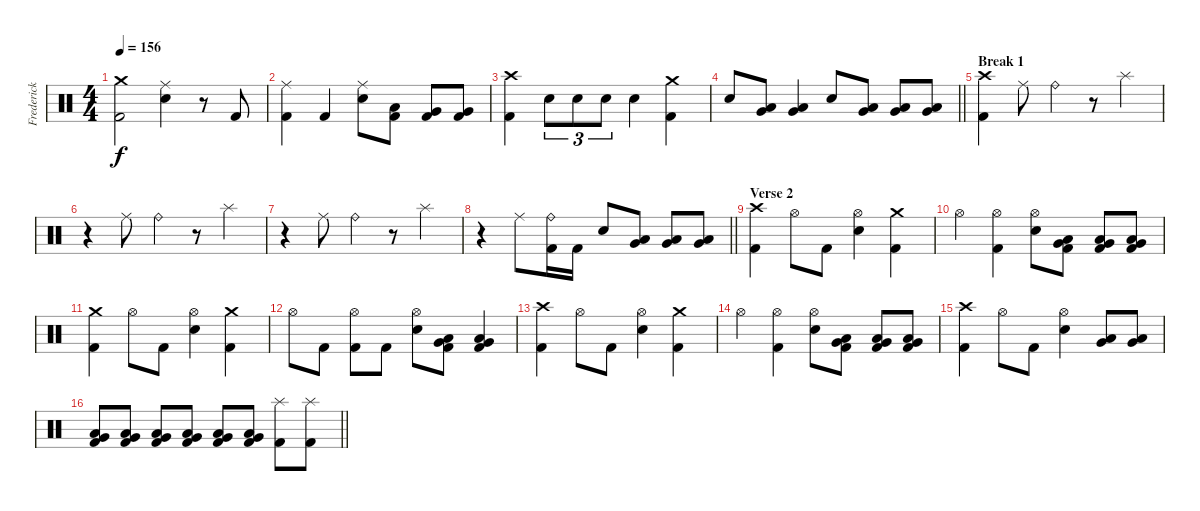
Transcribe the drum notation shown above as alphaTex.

\track ("Frederick Ehmke" "Frederick ") {instrument percussion}
\staff {score}
\articulation defaults
\ts (4 4)
\tempo 156
\clef neutral
\ks c
("Crash medium (hit)" "Kick (hit) 2").2{dy f} ("Ride (middle)" "Electric Snare (hit)").4 r.8 "Kick (hit) 2".8 |
("Ride (middle)" "Kick (hit) 2").4 "Kick (hit) 2".4 ("Ride (middle)" "Electric Snare (hit)").8 ("Kick (hit) 2" "Low Tom (hit)").8 ("Kick (hit) 2" "Very Low Tom (hit)").8 ("Kick (hit) 2" "Very Low Tom (hit)").8 |
("Crash high (hit)" "Kick (hit) 2").4 "Electric Snare (hit)".8{tu (3 2)} "Electric Snare (hit)".8{tu (3 2)} "Electric Snare (hit)".8{tu (3 2)} "Electric Snare (hit)".4 ("Crash medium (hit)" "Kick (hit) 2").4 |
\barLineRight lightlight "Electric Snare (hit)".8
("Very Low Tom (hit)" "Low Tom (hit)").8 ("Very Low Tom (hit)" "Low Tom (hit)").4 "Electric Snare (hit)".8 ("Very Low Tom (hit)" "Low Floor Tom (hit)").8 ("Very Low Tom (hit)" "Low Floor Tom (hit)").8 ("Very Low Tom (hit)" "Low Floor Tom (hit)").8 |
\section ("" "Break 1")
("Crash high (hit)" "Kick (hit) 2").4 "Ride (middle)".8 "Ride (bell)".4 r.8 "Splash (hit)".4 |
r.4 "Ride (middle)".8 "Ride (bell)".4 r.8 "Splash (hit)".4 |
r.4 "Ride (middle)".8 "Ride (bell)".4 r.8 "Splash (hit)".4 |
\barLineRight lightlight
r.4 "Ride (middle)".8 ("Ride (bell)" "Kick (hit) 2").16 "Kick (hit) 2".16 "Electric Snare (hit)".8 ("Low Tom (hit)" "Very Low Tom (hit)").8 ("Very Low Tom (hit)" "Low Floor Tom (hit)").8 ("Very Low Tom (hit)" "Low Floor Tom (hit)").8 |
\section ("" "Verse 2")
("Crash high (hit)" "Kick (hit) 2").4 "Hi-Hat (open)".8 "Kick (hit) 2".8 ("Hi-Hat (open)" "Electric Snare (hit)").4 ("Crash medium (hit)" "Kick (hit) 2").4 |
"Hi-Hat (open)".4 ("Hi-Hat (open)" "Kick (hit) 2").4 ("Hi-Hat (open)" "Electric Snare (hit)").8 ("Kick (hit) 2" "Low Tom (hit)" "Very Low Tom (hit)").8 ("Kick (hit) 2" "Low Tom (hit)" "Very Low Tom (hit)").8 ("Kick (hit) 2" "Very Low Tom (hit)" "Low Floor Tom (hit)").8 |
("Crash medium (hit)" "Kick (hit) 2").4 "Hi-Hat (open)".8 "Kick (hit) 2".8 ("Hi-Hat (open)" "Electric Snare (hit)").4 ("Crash medium (hit)" "Kick (hit) 2").4 |
"Hi-Hat (open)".8 "Kick (hit) 2".8 ("Hi-Hat (open)" "Kick (hit) 2").8 "Kick (hit) 2".8 ("Hi-Hat (open)" "Electric Snare (hit)").8 ("Kick (hit) 2" "Low Tom (hit)" "Very Low Tom (hit)").8 ("Kick (hit) 2" "Low Tom (hit)" "Very Low Tom (hit)").4 |
("Crash high (hit)" "Kick (hit) 2").4 "Hi-Hat (open)".8 "Kick (hit) 2".8 ("Hi-Hat (open)" "Electric Snare (hit)").4 ("Crash medium (hit)" "Kick (hit) 2").4 |
"Hi-Hat (open)".4 ("Hi-Hat (open)" "Kick (hit) 2").4 ("Hi-Hat (open)" "Electric Snare (hit)").8 ("Kick (hit) 2" "Low Tom (hit)" "Very Low Tom (hit)").8 ("Kick (hit) 2" "Low Tom (hit)" "Very Low Tom (hit)").8 ("Kick (hit) 2" "Very Low Tom (hit)" "Low Floor Tom (hit)").8 |
("Crash high (hit)" "Kick (hit) 2").4 "Hi-Hat (open)".8 "Kick (hit) 2".8 ("Hi-Hat (open)" "Electric Snare (hit)").4 ("Low Tom (hit)" "Very Low Tom (hit)").8 ("Low Tom (hit)" "Very Low Tom (hit)").8 |
\barLineRight lightlight
("Kick (hit) 2" "Low Tom (hit)" "Very Low Tom (hit)").8 ("Kick (hit) 2" "Low Tom (hit)" "Very Low Tom (hit)").8 ("Kick (hit) 2" "Low Tom (hit)" "Very Low Tom (hit)").8 ("Kick (hit) 2" "Very Low Tom (hit)" "Low Floor Tom (hit)").8 ("Kick (hit) 2" "Very Low Tom (hit)" "Low Floor Tom (hit)").8 ("Kick (hit) 2" "Very Low Tom (hit)" "Low Floor Tom (hit)").8 ("Splash (hit)" "Kick (hit) 2").8 ("Splash (hit)" "Kick (hit) 2").8
